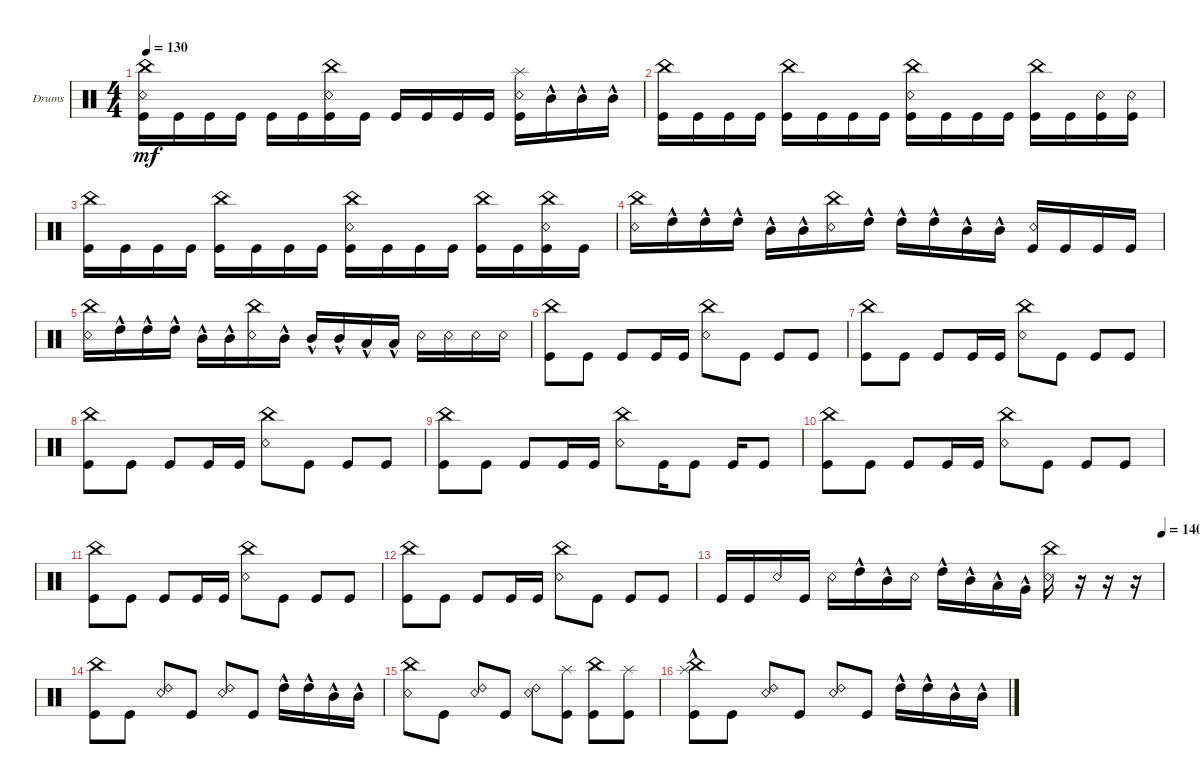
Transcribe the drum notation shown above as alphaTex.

\defaultSystemsLayout 4
\bracketExtendMode groupsimilarinstruments
\firstSystemTrackNameOrientation horizontal
\otherSystemsTrackNameOrientation horizontal
\track ("Drumkit" "Drums") {instrument percussion}
\staff {score}
\articulation defaults
\ts (4 4)
\tempo 130
\clef neutral
\ks c
("Kick (hit)" "Snare (rim shot)" "China (hit)").16{dy mf} "Kick (hit)".16 "Kick (hit)".16 "Kick (hit)".16 "Kick (hit)".16 "Kick (hit)".16 ("Kick (hit)" "Snare (rim shot)" "China (hit)").16 "Kick (hit)".16 "Kick (hit)".16 "Kick (hit)".16 "Kick (hit)".16 "Kick (hit)".16 ("Kick (hit)" "Snare (rim shot)" "Splash (hit)").16 "Mid Tom (hit)"{hac}.16 "Mid Tom (hit)"{hac}.16 "Mid Tom (hit)"{hac}.16 |
("Kick (hit)" "China (hit)").16 "Kick (hit)".16 "Kick (hit)".16 "Kick (hit)".16 ("Kick (hit)" "China (hit)").16 "Kick (hit)".16 "Kick (hit)".16 "Kick (hit)".16 ("Kick (hit)" "Snare (rim shot)" "China (hit)").16 "Kick (hit)".16 "Kick (hit)".16 "Kick (hit)".16 ("Kick (hit)" "China (hit)").16 "Kick (hit)".16 ("Snare (rim shot)" "Kick (hit)").16 ("Kick (hit)" "Snare (rim shot)").16 |
("Kick (hit)" "China (hit)").16 "Kick (hit)".16 "Kick (hit)".16 "Kick (hit)".16 ("Kick (hit)" "China (hit)").16 "Kick (hit)".16 "Kick (hit)".16 "Kick (hit)".16 ("Kick (hit)" "Snare (rim shot)" "China (hit)").16 "Kick (hit)".16 "Kick (hit)".16 "Kick (hit)".16 ("Kick (hit)" "China (hit)").16 "Kick (hit)".16 ("Snare (rim shot)" "Kick (hit)" "China (hit)").16 "Kick (hit)".16 |
("Snare (rim shot)" "China (hit)").16 "High Tom (hit)"{hac}.16 "High Tom (hit)"{hac}.16 "High Tom (hit)"{hac}.16 "Mid Tom (hit)"{hac}.16 "Mid Tom (hit)"{hac}.16 ("Snare (rim shot)" "China (hit)").16 "High Tom (hit)"{hac}.16 "High Tom (hit)"{hac}.16 "High Tom (hit)"{hac}.16 "Mid Tom (hit)"{hac}.16 "Mid Tom (hit)"{hac}.16 ("Kick (hit)" "Snare (rim shot)").16 "Kick (hit)".16 "Kick (hit)".16 "Kick (hit)".16 |
("Snare (rim shot)" "China (hit)").16 "High Tom (hit)"{hac}.16 "High Tom (hit)"{hac}.16 "High Tom (hit)"{hac}.16 "Mid Tom (hit)"{hac}.16 "Mid Tom (hit)"{hac}.16 ("Snare (rim shot)" "China (hit)").16 "Mid Tom (hit)"{hac}.16 "Mid Tom (hit)"{hac}.16 "Mid Tom (hit)"{hac}.16 "Low Tom (hit)"{hac}.16 "Low Tom (hit)"{hac}.16 "Snare (rim shot)".16 "Snare (rim shot)".16 "Snare (rim shot)".16 "Snare (rim shot)".16 |
("China (hit)" "Kick (hit)").8 "Kick (hit)".8 "Kick (hit)".8 "Kick (hit)".16 "Kick (hit)".16 ("Snare (rim shot)" "China (hit)").8 "Kick (hit)".8 "Kick (hit)".8 "Kick (hit)".8 |
("China (hit)" "Kick (hit)").8 "Kick (hit)".8 "Kick (hit)".8 "Kick (hit)".16 "Kick (hit)".16 ("Snare (rim shot)" "China (hit)").8 "Kick (hit)".8 "Kick (hit)".8 "Kick (hit)".8 |
("China (hit)" "Kick (hit)").8 "Kick (hit)".8 "Kick (hit)".8 "Kick (hit)".16 "Kick (hit)".16 ("Snare (rim shot)" "China (hit)").8 "Kick (hit)".8 "Kick (hit)".8 "Kick (hit)".8 |
("China (hit)" "Kick (hit)").8 "Kick (hit)".8 "Kick (hit)".8 "Kick (hit)".16 "Kick (hit)".16 ("Snare (rim shot)" "China (hit)").8 "Kick (hit)".16 "Kick (hit)".8 "Kick (hit)".16 "Kick (hit)".8 |
("China (hit)" "Kick (hit)").8 "Kick (hit)".8 "Kick (hit)".8 "Kick (hit)".16 "Kick (hit)".16 ("Snare (rim shot)" "China (hit)").8 "Kick (hit)".8 "Kick (hit)".8 "Kick (hit)".8 |
("China (hit)" "Kick (hit)").8 "Kick (hit)".8 "Kick (hit)".8 "Kick (hit)".16 "Kick (hit)".16 ("Snare (rim shot)" "China (hit)").8 "Kick (hit)".8 "Kick (hit)".8 "Kick (hit)".8 |
("China (hit)" "Kick (hit)").8 "Kick (hit)".8 "Kick (hit)".8 "Kick (hit)".16 "Kick (hit)".16 ("Snare (rim shot)" "China (hit)").8 "Kick (hit)".8 "Kick (hit)".8 "Kick (hit)".8 |
\tempo (140 1)
"Kick (hit)".16 "Kick (hit)".16 "Snare (rim shot)".16 "Kick (hit)".16 "Snare (rim shot)".16 "High Tom (hit)"{hac}.16 "Mid Tom (hit)"{hac}.16 "Snare (rim shot)".16 "High Tom (hit)"{hac}.16 "Mid Tom (hit)"{hac}.16 "Low Tom (hit)"{hac}.16 "Very Low Tom (hit)"{hac}.16 ("China (hit)" "Snare (rim shot)").16 r.16 r.16 r.16 |
("China (hit)" "Kick (hit)").8 "Kick (hit)".8 ("Snare (rim shot)" "Ride (bell) 2").8 "Kick (hit)".8 ("Snare (rim shot)" "Ride (bell) 2").8 "Kick (hit)".8 "High Tom (hit)"{hac}.16 "High Tom (hit)"{hac}.16 "Mid Tom (hit)"{hac}.16 "Mid Tom (hit)"{hac}.16 |
("China (hit)" "Snare (rim shot)").8 "Kick (hit)".8 ("Snare (rim shot)" "Ride (bell) 2").8 "Kick (hit)".8 ("Snare (rim shot)" "Ride (bell) 2").8 ("Kick (hit)" "Splash (hit)").8 ("China (hit)" "Kick (hit)").8 ("Kick (hit)" "Splash (hit)").8 |
("Kick (hit)" "China (hit)" "Splash (hit)"{hac}).8 "Kick (hit)".8 ("Snare (rim shot)" "Ride (bell) 2").8 "Kick (hit)".8 ("Snare (rim shot)" "Ride (bell) 2").8 "Kick (hit)".8 "High Tom (hit)"{hac}.16 "High Tom (hit)"{hac}.16 "Mid Tom (hit)"{hac}.16 "Mid Tom (hit)"{hac}.16
